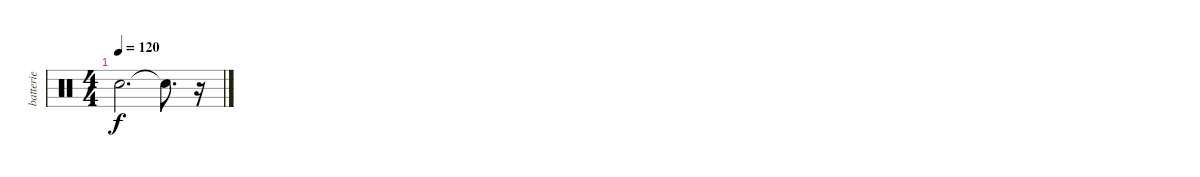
\track ("batterie" "batterie") {instrument percussion}
\staff {score}
\articulation defaults
\ts (4 4)
\tempo 120
\clef neutral
\ks c "Snare (hit)"{t}.2{d dy f} "Snare (hit)"{t}.8{d}
r.16
